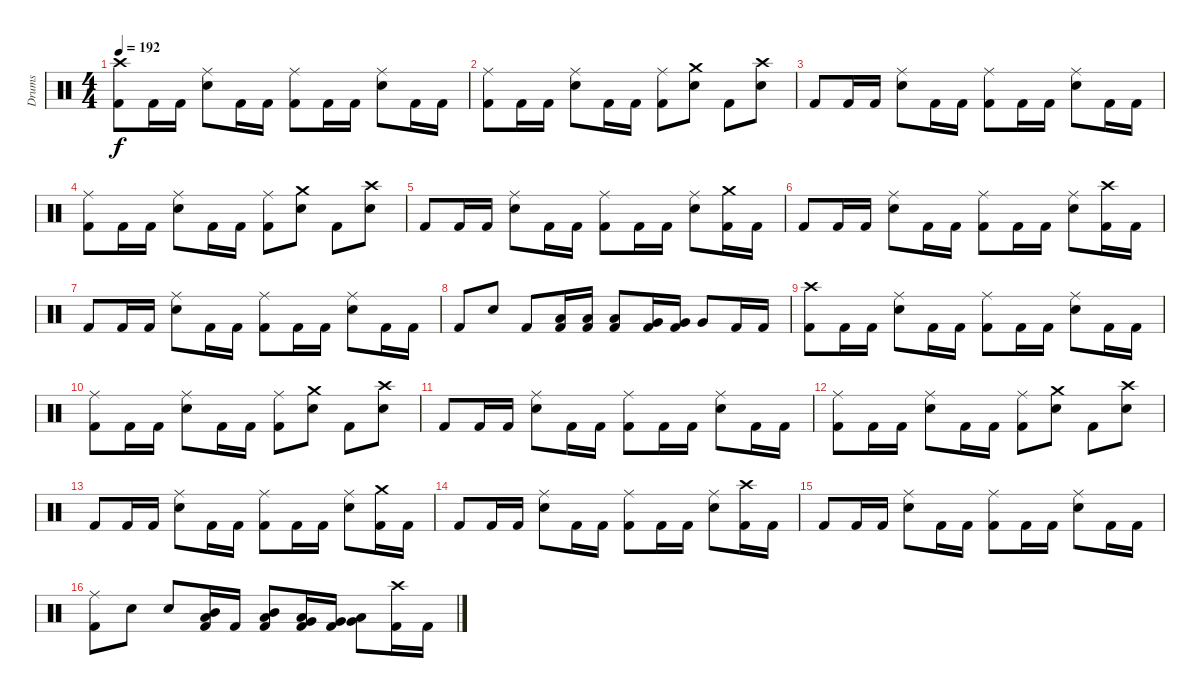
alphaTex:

\track ("Drums" "Drums") {instrument percussion}
\staff {score}
\articulation defaults
\ts (4 4)
\tempo 192
\clef neutral
\ks c
("Crash high (hit)" "Kick (hit) 2").8{dy f} "Kick (hit) 2".16 "Kick (hit) 2".16 ("Ride (middle)" "Snare (hit) 2").8 "Kick (hit) 2".16 "Kick (hit) 2".16 ("Ride (middle)" "Kick (hit) 2").8 "Kick (hit) 2".16 "Kick (hit) 2".16 ("Ride (middle)" "Snare (hit) 2").8 "Kick (hit) 2".16 "Kick (hit) 2".16 |
("Ride (middle)" "Kick (hit) 2").8 "Kick (hit) 2".16 "Kick (hit) 2".16 ("Ride (middle)" "Snare (hit) 2").8 "Kick (hit) 2".16 "Kick (hit) 2".16 ("Ride (middle)" "Kick (hit) 2").8 ("Crash medium (hit)" "Snare (hit) 2").8 "Kick (hit) 2".8 ("Crash high (hit)" "Snare (hit) 2").8 |
"Kick (hit) 2".8 "Kick (hit) 2".16 "Kick (hit) 2".16 ("Ride (middle)" "Snare (hit) 2").8 "Kick (hit) 2".16 "Kick (hit) 2".16 ("Ride (middle)" "Kick (hit) 2").8 "Kick (hit) 2".16 "Kick (hit) 2".16 ("Ride (middle)" "Snare (hit) 2").8 "Kick (hit) 2".16 "Kick (hit) 2".16 |
("Ride (middle)" "Kick (hit) 2").8 "Kick (hit) 2".16 "Kick (hit) 2".16 ("Ride (middle)" "Snare (hit) 2").8 "Kick (hit) 2".16 "Kick (hit) 2".16 ("Ride (middle)" "Kick (hit) 2").8 ("Crash medium (hit)" "Snare (hit) 2").8 "Kick (hit) 2".8 ("Crash high (hit)" "Snare (hit) 2").8 |
"Kick (hit) 2".8 "Kick (hit) 2".16 "Kick (hit) 2".16 ("Ride (middle)" "Snare (hit) 2").8 "Kick (hit) 2".16 "Kick (hit) 2".16 ("Ride (middle)" "Kick (hit) 2").8 "Kick (hit) 2".16 "Kick (hit) 2".16 ("Ride (middle)" "Snare (hit) 2").8 ("Crash medium (hit)" "Kick (hit) 2").16 "Kick (hit) 2".16 |
"Kick (hit) 2".8 "Kick (hit) 2".16 "Kick (hit) 2".16 ("Ride (middle)" "Snare (hit) 2").8 "Kick (hit) 2".16 "Kick (hit) 2".16 ("Ride (middle)" "Kick (hit) 2").8 "Kick (hit) 2".16 "Kick (hit) 2".16 ("Ride (middle)" "Snare (hit) 2").8 ("Crash high (hit)" "Kick (hit) 2").16 "Kick (hit) 2".16 |
"Kick (hit) 2".8 "Kick (hit) 2".16 "Kick (hit) 2".16 ("Ride (middle)" "Snare (hit) 2").8 "Kick (hit) 2".16 "Kick (hit) 2".16 ("Ride (middle)" "Kick (hit) 2").8 "Kick (hit) 2".16 "Kick (hit) 2".16 ("Ride (middle)" "Snare (hit) 2").8 "Kick (hit) 2".16 "Kick (hit) 2".16 |
"Kick (hit) 2".8 "Snare (hit) 2".8 "Kick (hit) 2".8 ("Low Tom (hit)" "Kick (hit) 2").16 ("Low Tom (hit)" "Kick (hit) 2").16 ("Low Tom (hit)" "Kick (hit) 2").8 ("Very Low Tom (hit)" "Kick (hit) 2").16 ("Very Low Tom (hit)" "Kick (hit) 2").16 "Very Low Tom (hit)".8 "Kick (hit) 2".16 "Kick (hit) 2".16 |
("Crash high (hit)" "Kick (hit) 2").8 "Kick (hit) 2".16 "Kick (hit) 2".16 ("Ride (middle)" "Snare (hit) 2").8 "Kick (hit) 2".16 "Kick (hit) 2".16 ("Ride (middle)" "Kick (hit) 2").8 "Kick (hit) 2".16 "Kick (hit) 2".16 ("Ride (middle)" "Snare (hit) 2").8 "Kick (hit) 2".16 "Kick (hit) 2".16 |
("Ride (middle)" "Kick (hit) 2").8 "Kick (hit) 2".16 "Kick (hit) 2".16 ("Ride (middle)" "Snare (hit) 2").8 "Kick (hit) 2".16 "Kick (hit) 2".16 ("Ride (middle)" "Kick (hit) 2").8 ("Crash medium (hit)" "Snare (hit) 2").8 "Kick (hit) 2".8 ("Crash high (hit)" "Snare (hit) 2").8 |
"Kick (hit) 2".8 "Kick (hit) 2".16 "Kick (hit) 2".16 ("Ride (middle)" "Snare (hit) 2").8 "Kick (hit) 2".16 "Kick (hit) 2".16 ("Ride (middle)" "Kick (hit) 2").8 "Kick (hit) 2".16 "Kick (hit) 2".16 ("Ride (middle)" "Snare (hit) 2").8 "Kick (hit) 2".16 "Kick (hit) 2".16 |
("Ride (middle)" "Kick (hit) 2").8 "Kick (hit) 2".16 "Kick (hit) 2".16 ("Ride (middle)" "Snare (hit) 2").8 "Kick (hit) 2".16 "Kick (hit) 2".16 ("Ride (middle)" "Kick (hit) 2").8 ("Crash medium (hit)" "Snare (hit) 2").8 "Kick (hit) 2".8 ("Crash high (hit)" "Snare (hit) 2").8 |
"Kick (hit) 2".8 "Kick (hit) 2".16 "Kick (hit) 2".16 ("Ride (middle)" "Snare (hit) 2").8 "Kick (hit) 2".16 "Kick (hit) 2".16 ("Ride (middle)" "Kick (hit) 2").8 "Kick (hit) 2".16 "Kick (hit) 2".16 ("Ride (middle)" "Snare (hit) 2").8 ("Crash medium (hit)" "Kick (hit) 2").16 "Kick (hit) 2".16 |
"Kick (hit) 2".8 "Kick (hit) 2".16 "Kick (hit) 2".16 ("Ride (middle)" "Snare (hit) 2").8 "Kick (hit) 2".16 "Kick (hit) 2".16 ("Ride (middle)" "Kick (hit) 2").8 "Kick (hit) 2".16 "Kick (hit) 2".16 ("Ride (middle)" "Snare (hit) 2").8 ("Crash high (hit)" "Kick (hit) 2").16 "Kick (hit) 2".16 |
"Kick (hit) 2".8 "Kick (hit) 2".16 "Kick (hit) 2".16 ("Ride (middle)" "Snare (hit) 2").8 "Kick (hit) 2".16 "Kick (hit) 2".16 ("Ride (middle)" "Kick (hit) 2").8 "Kick (hit) 2".16 "Kick (hit) 2".16 ("Ride (middle)" "Snare (hit) 2").8 "Kick (hit) 2".16 "Kick (hit) 2".16 |
("Ride (middle)" "Kick (hit) 2").8 "Snare (hit) 2".8 "Snare (hit) 2".8 ("Mid Tom (hit)" "Low Tom (hit)" "Kick (hit) 2").16 "Kick (hit) 2".16 ("Mid Tom (hit)" "Low Tom (hit)" "Kick (hit) 2").8 ("Low Tom (hit)" "Very Low Tom (hit)" "Kick (hit) 2").16 ("Very Low Tom (hit)" "Kick (hit) 2").16 ("Low Tom (hit)" "Very Low Tom (hit)").8 ("Crash high (hit)" "Kick (hit) 2").16 "Kick (hit) 2".16
